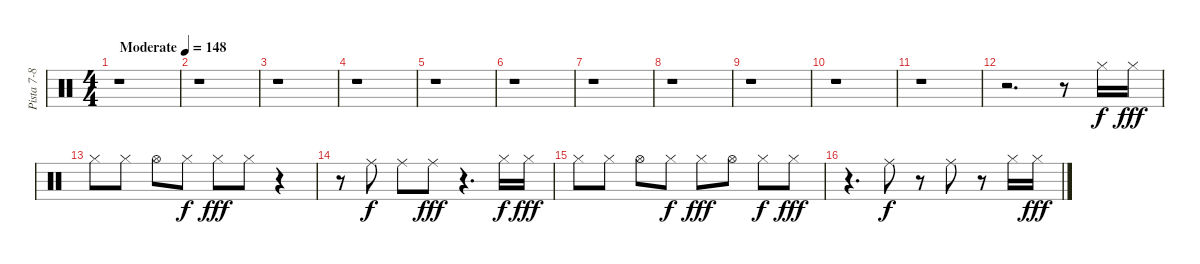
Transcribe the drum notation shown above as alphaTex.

\track ("Pista 7-8" "Pista 7-8") {instrument percussion}
\staff {score}
\articulation defaults
\ts (4 4)
\tempo (148 "Moderate")
\clef neutral
\ks c
r.1{dy f} |
r.1 |
r.1 |
r.1 |
r.1 |
r.1 |
r.1 |
r.1 |
r.1 |
r.1 |
r.1 |
r.2{d} r.8 "Hi-Hat (closed)".16 "Hi-Hat (closed)".16{dy fff} |
"Hi-Hat (closed)".8 "Hi-Hat (closed)".8 "Hi-Hat (open)".8 "Hi-Hat (closed)".8{dy f} "Hi-Hat (closed)".8{dy fff} "Hi-Hat (closed)".8 r.4 |
r.8 "Ride (middle)".8{dy f} "Ride (middle)".8 "Ride (middle)".8{dy fff} r.4{d} "Hi-Hat (closed)".16{dy f} "Hi-Hat (closed)".16{dy fff} |
"Hi-Hat (closed)".8 "Hi-Hat (closed)".8 "Hi-Hat (open)".8 "Hi-Hat (closed)".8{dy f} "Hi-Hat (closed)".8{dy fff} "Hi-Hat (open)".8 "Hi-Hat (closed)".8{dy f} "Hi-Hat (closed)".8{dy fff} |
r.4{d} "Ride (middle)".8{dy f} r.8 "Ride (middle)".8 r.8 "Hi-Hat (closed)".16 "Hi-Hat (closed)".16{dy fff}
